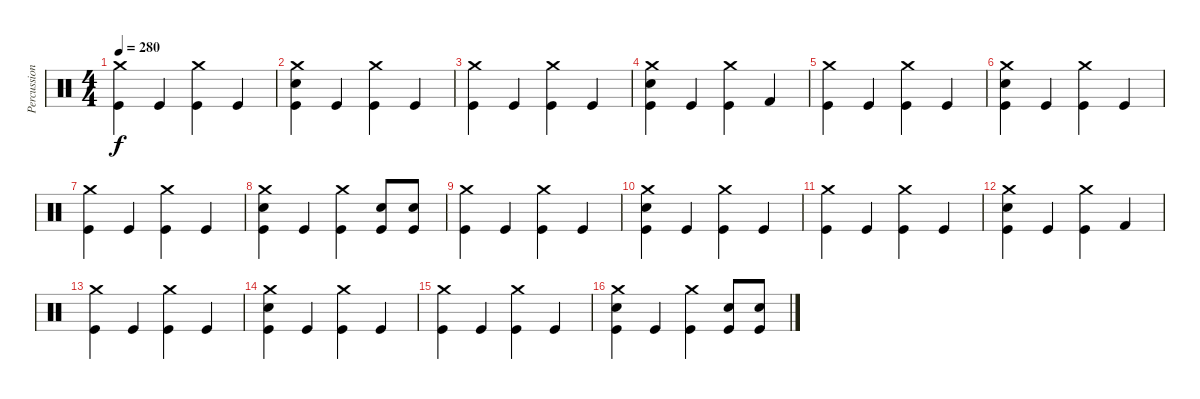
\track ("Percussion" "Percussion") {instrument percussion}
\staff {score}
\articulation defaults
\ts (4 4)
\tempo 280
\clef neutral
\ks c
("Crash medium (hit)" "Kick (hit)").4{dy f} "Kick (hit)".4 ("Crash medium (hit)" "Kick (hit)").4 "Kick (hit)".4 |
("Crash medium (hit)" "Electric Snare (hit)" "Kick (hit)").4 "Kick (hit)".4 ("Crash medium (hit)" "Kick (hit)").4 "Kick (hit)".4 |
("Crash medium (hit)" "Kick (hit)").4 "Kick (hit)".4 ("Crash medium (hit)" "Kick (hit)").4 "Kick (hit)".4 |
("Crash medium (hit)" "Electric Snare (hit)" "Kick (hit)").4 "Kick (hit)".4 ("Crash medium (hit)" "Kick (hit)").4 "Kick (hit) 2".4 |
("Crash medium (hit)" "Kick (hit)").4 "Kick (hit)".4 ("Crash medium (hit)" "Kick (hit)").4 "Kick (hit)".4 |
("Crash medium (hit)" "Electric Snare (hit)" "Kick (hit)").4 "Kick (hit)".4 ("Crash medium (hit)" "Kick (hit)").4 "Kick (hit)".4 |
("Crash medium (hit)" "Kick (hit)").4 "Kick (hit)".4 ("Crash medium (hit)" "Kick (hit)").4 "Kick (hit)".4 |
("Crash medium (hit)" "Electric Snare (hit)" "Kick (hit)").4 "Kick (hit)".4 ("Crash medium (hit)" "Kick (hit)").4 ("Electric Snare (hit)" "Kick (hit)").8 ("Electric Snare (hit)" "Kick (hit)").8 |
("Crash medium (hit)" "Kick (hit)").4 "Kick (hit)".4 ("Crash medium (hit)" "Kick (hit)").4 "Kick (hit)".4 |
("Crash medium (hit)" "Electric Snare (hit)" "Kick (hit)").4 "Kick (hit)".4 ("Crash medium (hit)" "Kick (hit)").4 "Kick (hit)".4 |
("Crash medium (hit)" "Kick (hit)").4 "Kick (hit)".4 ("Crash medium (hit)" "Kick (hit)").4 "Kick (hit)".4 |
("Crash medium (hit)" "Electric Snare (hit)" "Kick (hit)").4 "Kick (hit)".4 ("Crash medium (hit)" "Kick (hit)").4 "Kick (hit) 2".4 |
("Crash medium (hit)" "Kick (hit)").4 "Kick (hit)".4 ("Crash medium (hit)" "Kick (hit)").4 "Kick (hit)".4 |
("Crash medium (hit)" "Electric Snare (hit)" "Kick (hit)").4 "Kick (hit)".4 ("Crash medium (hit)" "Kick (hit)").4 "Kick (hit)".4 |
("Crash medium (hit)" "Kick (hit)").4 "Kick (hit)".4 ("Crash medium (hit)" "Kick (hit)").4 "Kick (hit)".4 |
("Crash medium (hit)" "Electric Snare (hit)" "Kick (hit)").4 "Kick (hit)".4 ("Crash medium (hit)" "Kick (hit)").4 ("Electric Snare (hit)" "Kick (hit)").8 ("Electric Snare (hit)" "Kick (hit)").8
